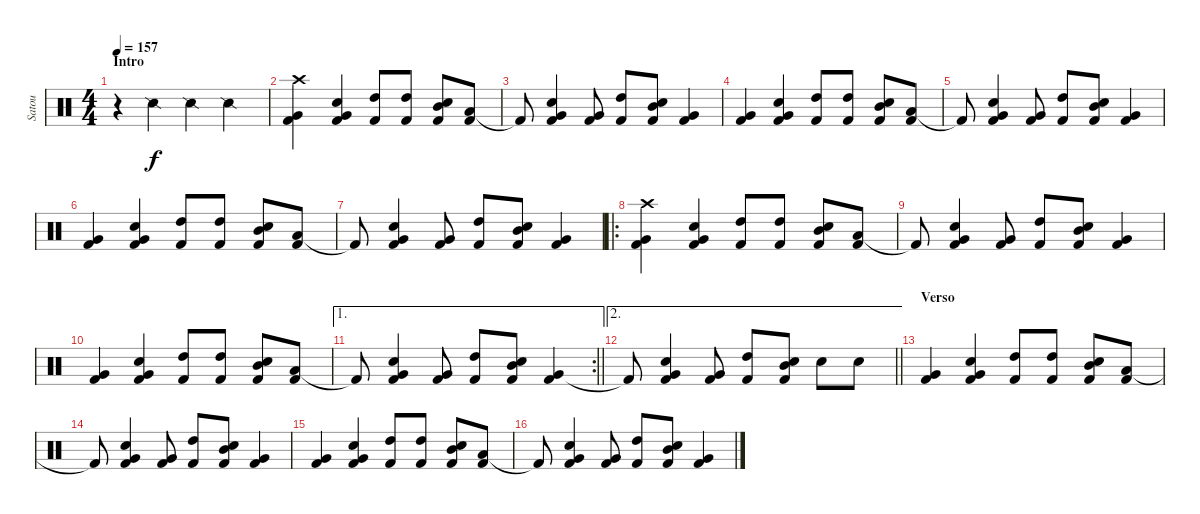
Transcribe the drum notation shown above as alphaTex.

\track ("Satou" "Satou") {instrument percussion}
\staff {score}
\articulation defaults
\ts (4 4)
\section ("" "Intro")
\tempo 157
\clef neutral
\ks c
r.4{dy f} "Snare (side stick) 2".4 "Snare (side stick) 2".4 "Snare (side stick) 2".4 |
("Very Low Tom (hit)" "Kick (hit) 2" "Crash high (hit)").4 ("Very Low Tom (hit)" "Kick (hit) 2" "Snare (hit) 2").4 ("High Tom (hit)" "Kick (hit) 2").8 ("High Tom (hit)" "Kick (hit) 2").8 ("Mid Tom (hit)" "Kick (hit) 2" "Snare (hit) 2").8 ("Low Tom (hit)" "Kick (hit) 2").8 |
"Kick (hit) 2"{t}.8 ("Very Low Tom (hit)" "Kick (hit) 2" "Snare (hit) 2").4 ("Very Low Tom (hit)" "Kick (hit) 2").8 ("High Tom (hit)" "Kick (hit) 2").8 ("Mid Tom (hit)" "Kick (hit) 2" "Snare (hit) 2").8 ("Very Low Tom (hit)" "Kick (hit) 2").4 |
("Very Low Tom (hit)" "Kick (hit) 2").4 ("Very Low Tom (hit)" "Kick (hit) 2" "Snare (hit) 2").4 ("High Tom (hit)" "Kick (hit) 2").8 ("High Tom (hit)" "Kick (hit) 2").8 ("Mid Tom (hit)" "Kick (hit) 2" "Snare (hit) 2").8 ("Low Tom (hit)" "Kick (hit) 2").8 |
"Kick (hit) 2"{t}.8 ("Very Low Tom (hit)" "Kick (hit) 2" "Snare (hit) 2").4 ("Very Low Tom (hit)" "Kick (hit) 2").8 ("High Tom (hit)" "Kick (hit) 2").8 ("Mid Tom (hit)" "Kick (hit) 2" "Snare (hit) 2").8 ("Very Low Tom (hit)" "Kick (hit) 2").4 |
("Very Low Tom (hit)" "Kick (hit) 2").4 ("Very Low Tom (hit)" "Kick (hit) 2" "Snare (hit) 2").4 ("High Tom (hit)" "Kick (hit) 2").8 ("High Tom (hit)" "Kick (hit) 2").8 ("Mid Tom (hit)" "Kick (hit) 2" "Snare (hit) 2").8 ("Low Tom (hit)" "Kick (hit) 2").8 |
"Kick (hit) 2"{t}.8 ("Very Low Tom (hit)" "Kick (hit) 2" "Snare (hit) 2").4 ("Very Low Tom (hit)" "Kick (hit) 2").8 ("High Tom (hit)" "Kick (hit) 2").8 ("Mid Tom (hit)" "Kick (hit) 2" "Snare (hit) 2").8 ("Very Low Tom (hit)" "Kick (hit) 2").4 |
\ro
("Very Low Tom (hit)" "Kick (hit) 2" "Crash high (hit)").4 ("Very Low Tom (hit)" "Kick (hit) 2" "Snare (hit) 2").4 ("High Tom (hit)" "Kick (hit) 2").8 ("High Tom (hit)" "Kick (hit) 2").8 ("Mid Tom (hit)" "Kick (hit) 2" "Snare (hit) 2").8 ("Low Tom (hit)" "Kick (hit) 2").8 |
"Kick (hit) 2"{t}.8 ("Very Low Tom (hit)" "Kick (hit) 2" "Snare (hit) 2").4 ("Very Low Tom (hit)" "Kick (hit) 2").8 ("High Tom (hit)" "Kick (hit) 2").8 ("Mid Tom (hit)" "Kick (hit) 2" "Snare (hit) 2").8 ("Very Low Tom (hit)" "Kick (hit) 2").4 |
("Very Low Tom (hit)" "Kick (hit) 2").4 ("Very Low Tom (hit)" "Kick (hit) 2" "Snare (hit) 2").4 ("High Tom (hit)" "Kick (hit) 2").8 ("High Tom (hit)" "Kick (hit) 2").8 ("Mid Tom (hit)" "Kick (hit) 2" "Snare (hit) 2").8 ("Low Tom (hit)" "Kick (hit) 2").8 |
\ae 1
\rc 2
\barLineRight lightlight "Kick (hit) 2"{t}.8
("Very Low Tom (hit)" "Kick (hit) 2" "Snare (hit) 2").4 ("Very Low Tom (hit)" "Kick (hit) 2").8 ("High Tom (hit)" "Kick (hit) 2").8 ("Mid Tom (hit)" "Kick (hit) 2" "Snare (hit) 2").8 ("Very Low Tom (hit)" "Kick (hit) 2").4 |
\ae 2
\barLineRight lightlight "Kick (hit) 2"{t}.8
("Very Low Tom (hit)" "Kick (hit) 2" "Snare (hit) 2").4 ("Very Low Tom (hit)" "Kick (hit) 2").8 ("High Tom (hit)" "Kick (hit) 2").8 ("Mid Tom (hit)" "Kick (hit) 2" "Snare (hit) 2").8 "Snare (hit) 2".8 "Snare (hit) 2".8 |
\section ("" "Verso")
("Very Low Tom (hit)" "Kick (hit) 2").4 ("Very Low Tom (hit)" "Kick (hit) 2" "Snare (hit) 2").4 ("High Tom (hit)" "Kick (hit) 2").8 ("High Tom (hit)" "Kick (hit) 2").8 ("Mid Tom (hit)" "Kick (hit) 2" "Snare (hit) 2").8 ("Low Tom (hit)" "Kick (hit) 2").8 |
"Kick (hit) 2"{t}.8 ("Very Low Tom (hit)" "Kick (hit) 2" "Snare (hit) 2").4 ("Very Low Tom (hit)" "Kick (hit) 2").8 ("High Tom (hit)" "Kick (hit) 2").8 ("Mid Tom (hit)" "Kick (hit) 2" "Snare (hit) 2").8 ("Very Low Tom (hit)" "Kick (hit) 2").4 |
("Very Low Tom (hit)" "Kick (hit) 2").4 ("Very Low Tom (hit)" "Kick (hit) 2" "Snare (hit) 2").4 ("High Tom (hit)" "Kick (hit) 2").8 ("High Tom (hit)" "Kick (hit) 2").8 ("Mid Tom (hit)" "Kick (hit) 2" "Snare (hit) 2").8 ("Low Tom (hit)" "Kick (hit) 2").8 |
"Kick (hit) 2"{t}.8 ("Very Low Tom (hit)" "Kick (hit) 2" "Snare (hit) 2").4 ("Very Low Tom (hit)" "Kick (hit) 2").8 ("High Tom (hit)" "Kick (hit) 2").8 ("Mid Tom (hit)" "Kick (hit) 2" "Snare (hit) 2").8 ("Very Low Tom (hit)" "Kick (hit) 2").4
